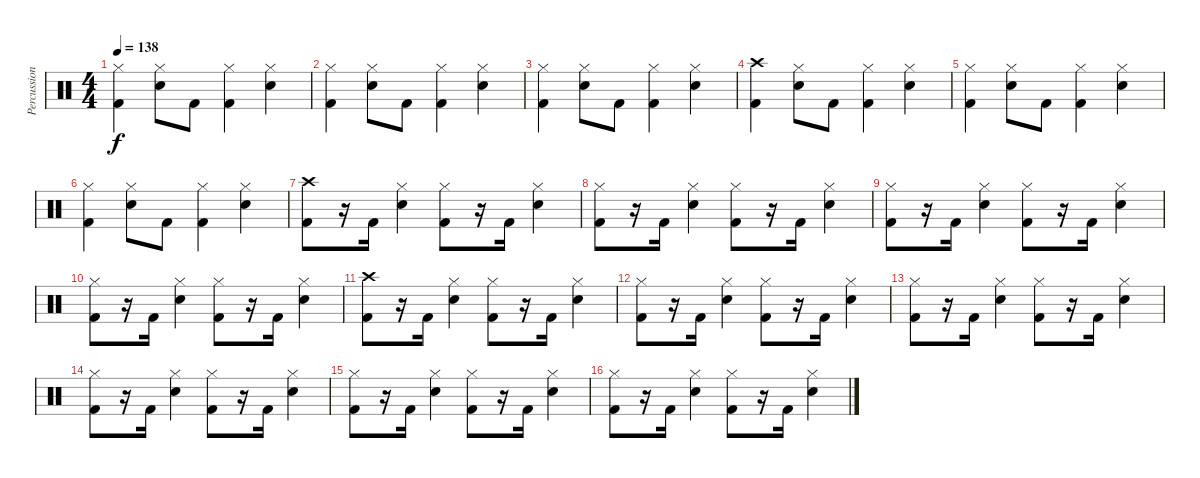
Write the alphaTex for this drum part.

\track ("Percussions" "Percussion") {instrument percussion}
\staff {score}
\articulation defaults
\ts (4 4)
\tempo 138
\clef neutral
\ks c
("Hi-Hat (closed)" "Kick (hit) 2").4{dy f} ("Hi-Hat (closed)" "Snare (hit) 2").8 "Kick (hit) 2".8 ("Hi-Hat (closed)" "Kick (hit) 2").4 ("Hi-Hat (closed)" "Snare (hit) 2").4 |
("Hi-Hat (closed)" "Kick (hit) 2").4 ("Hi-Hat (closed)" "Snare (hit) 2").8 "Kick (hit) 2".8 ("Hi-Hat (closed)" "Kick (hit) 2").4 ("Hi-Hat (closed)" "Snare (hit) 2").4 |
("Hi-Hat (closed)" "Kick (hit) 2").4 ("Hi-Hat (closed)" "Snare (hit) 2").8 "Kick (hit) 2".8 ("Hi-Hat (closed)" "Kick (hit) 2").4 ("Hi-Hat (closed)" "Snare (hit) 2").4 |
("Crash high (hit)" "Kick (hit) 2").4 ("Hi-Hat (closed)" "Snare (hit) 2").8 "Kick (hit) 2".8 ("Hi-Hat (closed)" "Kick (hit) 2").4 ("Hi-Hat (closed)" "Snare (hit) 2").4 |
("Hi-Hat (closed)" "Kick (hit) 2").4 ("Hi-Hat (closed)" "Snare (hit) 2").8 "Kick (hit) 2".8 ("Hi-Hat (closed)" "Kick (hit) 2").4 ("Hi-Hat (closed)" "Snare (hit) 2").4 |
("Hi-Hat (closed)" "Kick (hit) 2").4 ("Hi-Hat (closed)" "Snare (hit) 2").8 "Kick (hit) 2".8 ("Hi-Hat (closed)" "Kick (hit) 2").4 ("Hi-Hat (closed)" "Snare (hit) 2").4 |
("Crash high (hit)" "Kick (hit) 2").8 r.16 "Kick (hit) 2".16 ("Hi-Hat (closed)" "Snare (hit) 2").4 ("Hi-Hat (closed)" "Kick (hit) 2").8 r.16 "Kick (hit) 2".16 ("Hi-Hat (closed)" "Snare (hit) 2").4 |
("Hi-Hat (closed)" "Kick (hit) 2").8 r.16 "Kick (hit) 2".16 ("Hi-Hat (closed)" "Snare (hit) 2").4 ("Hi-Hat (closed)" "Kick (hit) 2").8 r.16 "Kick (hit) 2".16 ("Hi-Hat (closed)" "Snare (hit) 2").4 |
("Hi-Hat (closed)" "Kick (hit) 2").8 r.16 "Kick (hit) 2".16 ("Hi-Hat (closed)" "Snare (hit) 2").4 ("Hi-Hat (closed)" "Kick (hit) 2").8 r.16 "Kick (hit) 2".16 ("Hi-Hat (closed)" "Snare (hit) 2").4 |
("Hi-Hat (closed)" "Kick (hit) 2").8 r.16 "Kick (hit) 2".16 ("Hi-Hat (closed)" "Snare (hit) 2").4 ("Hi-Hat (closed)" "Kick (hit) 2").8 r.16 "Kick (hit) 2".16 ("Hi-Hat (closed)" "Snare (hit) 2").4 |
("Crash high (hit)" "Kick (hit) 2").8 r.16 "Kick (hit) 2".16 ("Hi-Hat (closed)" "Snare (hit) 2").4 ("Hi-Hat (closed)" "Kick (hit) 2").8 r.16 "Kick (hit) 2".16 ("Hi-Hat (closed)" "Snare (hit) 2").4 |
("Hi-Hat (closed)" "Kick (hit) 2").8 r.16 "Kick (hit) 2".16 ("Hi-Hat (closed)" "Snare (hit) 2").4 ("Hi-Hat (closed)" "Kick (hit) 2").8 r.16 "Kick (hit) 2".16 ("Hi-Hat (closed)" "Snare (hit) 2").4 |
("Hi-Hat (closed)" "Kick (hit) 2").8 r.16 "Kick (hit) 2".16 ("Hi-Hat (closed)" "Snare (hit) 2").4 ("Hi-Hat (closed)" "Kick (hit) 2").8 r.16 "Kick (hit) 2".16 ("Hi-Hat (closed)" "Snare (hit) 2").4 |
("Hi-Hat (closed)" "Kick (hit) 2").8 r.16 "Kick (hit) 2".16 ("Hi-Hat (closed)" "Snare (hit) 2").4 ("Hi-Hat (closed)" "Kick (hit) 2").8 r.16 "Kick (hit) 2".16 ("Hi-Hat (closed)" "Snare (hit) 2").4 |
("Hi-Hat (closed)" "Kick (hit) 2").8 r.16 "Kick (hit) 2".16 ("Hi-Hat (closed)" "Snare (hit) 2").4 ("Hi-Hat (closed)" "Kick (hit) 2").8 r.16 "Kick (hit) 2".16 ("Hi-Hat (closed)" "Snare (hit) 2").4 |
("Hi-Hat (closed)" "Kick (hit) 2").8 r.16 "Kick (hit) 2".16 ("Hi-Hat (closed)" "Snare (hit) 2").4 ("Hi-Hat (closed)" "Kick (hit) 2").8 r.16 "Kick (hit) 2".16 ("Hi-Hat (closed)" "Snare (hit) 2").4
